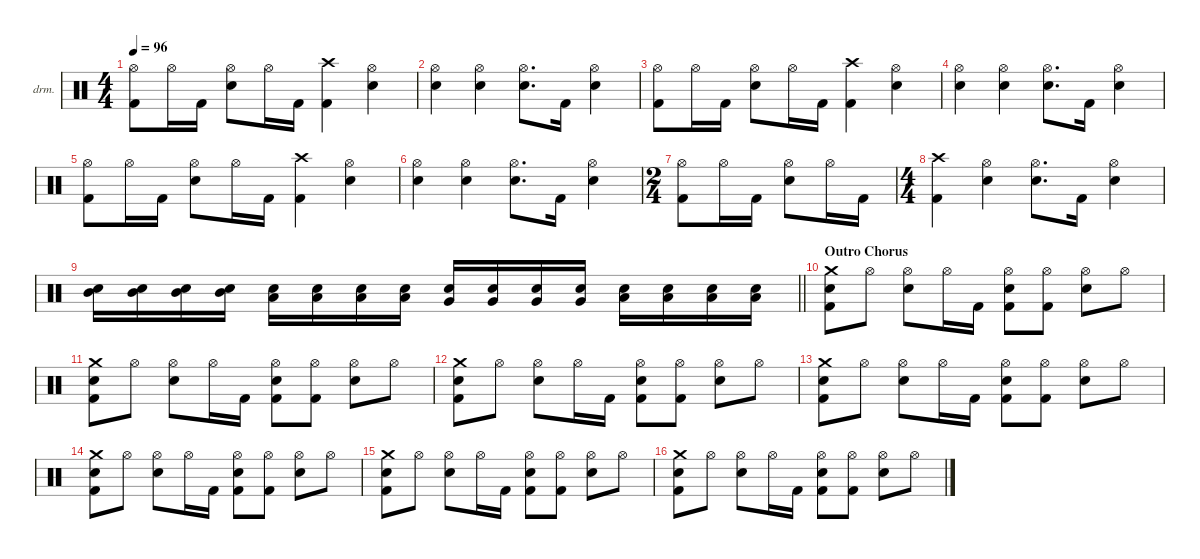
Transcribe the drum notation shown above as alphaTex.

\defaultSystemsLayout 4
\hideDynamics
\bracketExtendMode nobrackets
\firstSystemTrackNameOrientation horizontal
\otherSystemsTrackNameOrientation horizontal
\track ("Percussion" "drm.") {instrument percussion}
\staff {score}
\articulation defaults
\ts (4 4)
\tempo 96
\clef neutral
\ks c
("Hi-Hat (open)" "Kick (hit) 2").8{dy f} "Hi-Hat (open)".16 "Kick (hit) 2".16 ("Hi-Hat (open)" "Snare (hit) 2").8 "Hi-Hat (open)".16 "Kick (hit) 2".16 ("Crash high (hit)" "Kick (hit) 2").4 ("Hi-Hat (open)" "Snare (hit) 2").4 |
("Hi-Hat (open)" "Snare (hit) 2").4 ("Hi-Hat (open)" "Snare (hit) 2").4 ("Hi-Hat (open)" "Snare (hit) 2").8{d} "Kick (hit) 2".16 ("Hi-Hat (open)" "Snare (hit) 2").4 |
("Hi-Hat (open)" "Kick (hit) 2").8 "Hi-Hat (open)".16 "Kick (hit) 2".16 ("Hi-Hat (open)" "Snare (hit) 2").8 "Hi-Hat (open)".16 "Kick (hit) 2".16 ("Crash high (hit)" "Kick (hit) 2").4 ("Hi-Hat (open)" "Snare (hit) 2").4 |
("Hi-Hat (open)" "Snare (hit) 2").4 ("Hi-Hat (open)" "Snare (hit) 2").4 ("Hi-Hat (open)" "Snare (hit) 2").8{d} "Kick (hit) 2".16 ("Hi-Hat (open)" "Snare (hit) 2").4 |
("Hi-Hat (open)" "Kick (hit) 2").8 "Hi-Hat (open)".16 "Kick (hit) 2".16 ("Hi-Hat (open)" "Snare (hit) 2").8 "Hi-Hat (open)".16 "Kick (hit) 2".16 ("Crash high (hit)" "Kick (hit) 2").4 ("Hi-Hat (open)" "Snare (hit) 2").4 |
("Hi-Hat (open)" "Snare (hit) 2").4 ("Hi-Hat (open)" "Snare (hit) 2").4 ("Hi-Hat (open)" "Snare (hit) 2").8{d} "Kick (hit) 2".16 ("Hi-Hat (open)" "Snare (hit) 2").4 |
\ts (2 4)
\beaming (8 2 2)
("Hi-Hat (open)" "Kick (hit) 2").8 "Hi-Hat (open)".16 "Kick (hit) 2".16 ("Hi-Hat (open)" "Snare (hit) 2").8 "Hi-Hat (open)".16 "Kick (hit) 2".16 |
\ts (4 4)
\beaming (8 2 2 2 2)
("Crash high (hit)" "Kick (hit) 2").4 ("Hi-Hat (open)" "Snare (hit) 2").4 ("Hi-Hat (open)" "Snare (hit) 2").8{d} "Kick (hit) 2".16 ("Hi-Hat (open)" "Snare (hit) 2").4 |
\barLineRight lightlight
("Snare (hit) 2" "Mid Tom (hit)").16{dy p} ("Snare (hit) 2" "Mid Tom (hit)").16 ("Snare (hit) 2" "Mid Tom (hit)").16 ("Snare (hit) 2" "Mid Tom (hit)").16 ("Snare (hit) 2" "Low Tom (hit)").16{dy mp} ("Snare (hit) 2" "Low Tom (hit)").16 ("Snare (hit) 2" "Low Tom (hit)").16 ("Snare (hit) 2" "Low Tom (hit)").16 ("Snare (hit) 2" "Very Low Tom (hit)").16{dy mf} ("Snare (hit) 2" "Very Low Tom (hit)").16 ("Snare (hit) 2" "Very Low Tom (hit)").16 ("Snare (hit) 2" "Very Low Tom (hit)").16 ("Snare (hit) 2" "Low Floor Tom (hit)").16{dy f} ("Snare (hit) 2" "Low Floor Tom (hit)").16 ("Snare (hit) 2" "Low Floor Tom (hit)").16 ("Snare (hit) 2" "Low Floor Tom (hit)").16 |
\section ("" "Outro Chorus")
("Crash medium (hit)" "Snare (hit) 2" "Kick (hit) 2").8 "Hi-Hat (open)".8 ("Hi-Hat (open)" "Snare (hit) 2").8 "Hi-Hat (open)".16 "Kick (hit) 2".16 ("Hi-Hat (open)" "Snare (hit) 2" "Kick (hit) 2").8 ("Hi-Hat (open)" "Kick (hit) 2").8 ("Hi-Hat (open)" "Snare (hit) 2").8 "Hi-Hat (open)".8 |
("Crash medium (hit)" "Snare (hit) 2" "Kick (hit) 2").8 "Hi-Hat (open)".8 ("Hi-Hat (open)" "Snare (hit) 2").8 "Hi-Hat (open)".16 "Kick (hit) 2".16 ("Hi-Hat (open)" "Snare (hit) 2" "Kick (hit) 2").8 ("Hi-Hat (open)" "Kick (hit) 2").8 ("Hi-Hat (open)" "Snare (hit) 2").8 "Hi-Hat (open)".8 |
("Crash medium (hit)" "Snare (hit) 2" "Kick (hit) 2").8 "Hi-Hat (open)".8 ("Hi-Hat (open)" "Snare (hit) 2").8 "Hi-Hat (open)".16 "Kick (hit) 2".16 ("Hi-Hat (open)" "Snare (hit) 2" "Kick (hit) 2").8 ("Hi-Hat (open)" "Kick (hit) 2").8 ("Hi-Hat (open)" "Snare (hit) 2").8 "Hi-Hat (open)".8 |
("Crash medium (hit)" "Snare (hit) 2" "Kick (hit) 2").8 "Hi-Hat (open)".8 ("Hi-Hat (open)" "Snare (hit) 2").8 "Hi-Hat (open)".16 "Kick (hit) 2".16 ("Hi-Hat (open)" "Snare (hit) 2" "Kick (hit) 2").8 ("Hi-Hat (open)" "Kick (hit) 2").8 ("Hi-Hat (open)" "Snare (hit) 2").8 "Hi-Hat (open)".8 |
("Crash medium (hit)" "Snare (hit) 2" "Kick (hit) 2").8 "Hi-Hat (open)".8 ("Hi-Hat (open)" "Snare (hit) 2").8 "Hi-Hat (open)".16 "Kick (hit) 2".16 ("Hi-Hat (open)" "Snare (hit) 2" "Kick (hit) 2").8 ("Hi-Hat (open)" "Kick (hit) 2").8 ("Hi-Hat (open)" "Snare (hit) 2").8 "Hi-Hat (open)".8 |
("Crash medium (hit)" "Snare (hit) 2" "Kick (hit) 2").8 "Hi-Hat (open)".8 ("Hi-Hat (open)" "Snare (hit) 2").8 "Hi-Hat (open)".16 "Kick (hit) 2".16 ("Hi-Hat (open)" "Snare (hit) 2" "Kick (hit) 2").8 ("Hi-Hat (open)" "Kick (hit) 2").8 ("Hi-Hat (open)" "Snare (hit) 2").8 "Hi-Hat (open)".8 |
("Crash medium (hit)" "Snare (hit) 2" "Kick (hit) 2").8 "Hi-Hat (open)".8 ("Hi-Hat (open)" "Snare (hit) 2").8 "Hi-Hat (open)".16 "Kick (hit) 2".16 ("Hi-Hat (open)" "Snare (hit) 2" "Kick (hit) 2").8 ("Hi-Hat (open)" "Kick (hit) 2").8 ("Hi-Hat (open)" "Snare (hit) 2").8 "Hi-Hat (open)".8
